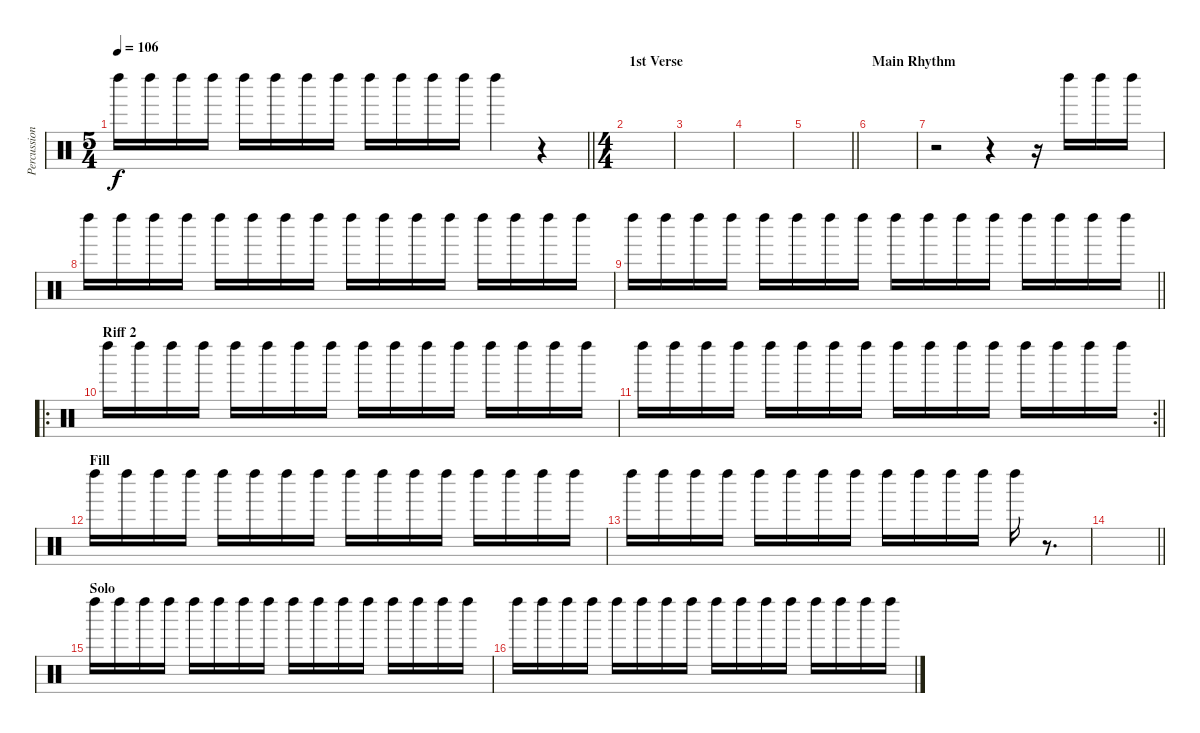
\track ("Percussion 1" "Percussion") {instrument percussion}
\staff
\articulation defaults
\ts (5 4)
\tempo 106
\clef neutral
\barLineRight lightlight
\ks c "Left Maraca (hit)".16{dy f} "Left Maraca (hit)".16 "Left Maraca (hit)".16 "Left Maraca (hit)".16 "Left Maraca (hit)".16 "Left Maraca (hit)".16 "Left Maraca (hit)".16 "Left Maraca (hit)".16 "Left Maraca (hit)".16 "Left Maraca (hit)".16 "Left Maraca (hit)".16 "Left Maraca (hit)".16 "Left Maraca (hit)".4
r.4 |
\ts (4 4)
\section ("" "1st Verse")
|
|
|
\barLineRight lightlight
|
\section ("" "Main Rhythm")
|
r.2 r.4 r.16 "Left Maraca (hit)".16 "Left Maraca (hit)".16 "Left Maraca (hit)".16 |
"Left Maraca (hit)".16 "Left Maraca (hit)".16 "Left Maraca (hit)".16 "Left Maraca (hit)".16 "Left Maraca (hit)".16 "Left Maraca (hit)".16 "Left Maraca (hit)".16 "Left Maraca (hit)".16 "Left Maraca (hit)".16 "Left Maraca (hit)".16 "Left Maraca (hit)".16 "Left Maraca (hit)".16 "Left Maraca (hit)".16 "Left Maraca (hit)".16 "Left Maraca (hit)".16 "Left Maraca (hit)".16 |
\barLineRight lightlight "Left Maraca (hit)".16 "Left Maraca (hit)".16 "Left Maraca (hit)".16 "Left Maraca (hit)".16 "Left Maraca (hit)".16 "Left Maraca (hit)".16 "Left Maraca (hit)".16 "Left Maraca (hit)".16 "Left Maraca (hit)".16 "Left Maraca (hit)".16 "Left Maraca (hit)".16 "Left Maraca (hit)".16 "Left Maraca (hit)".16 "Left Maraca (hit)".16 "Left Maraca (hit)".16 "Left Maraca (hit)".16
|
\ro
\section ("" "Riff 2")
"Left Maraca (hit)".16 "Left Maraca (hit)".16 "Left Maraca (hit)".16 "Left Maraca (hit)".16 "Left Maraca (hit)".16 "Left Maraca (hit)".16 "Left Maraca (hit)".16 "Left Maraca (hit)".16 "Left Maraca (hit)".16 "Left Maraca (hit)".16 "Left Maraca (hit)".16 "Left Maraca (hit)".16 "Left Maraca (hit)".16 "Left Maraca (hit)".16 "Left Maraca (hit)".16 "Left Maraca (hit)".16 |
\rc 2
\barLineRight lightlight "Left Maraca (hit)".16 "Left Maraca (hit)".16 "Left Maraca (hit)".16 "Left Maraca (hit)".16 "Left Maraca (hit)".16 "Left Maraca (hit)".16 "Left Maraca (hit)".16 "Left Maraca (hit)".16 "Left Maraca (hit)".16 "Left Maraca (hit)".16 "Left Maraca (hit)".16 "Left Maraca (hit)".16 "Left Maraca (hit)".16 "Left Maraca (hit)".16 "Left Maraca (hit)".16 "Left Maraca (hit)".16
|
\section ("" "Fill")
"Left Maraca (hit)".16 "Left Maraca (hit)".16 "Left Maraca (hit)".16 "Left Maraca (hit)".16 "Left Maraca (hit)".16 "Left Maraca (hit)".16 "Left Maraca (hit)".16 "Left Maraca (hit)".16 "Left Maraca (hit)".16 "Left Maraca (hit)".16 "Left Maraca (hit)".16 "Left Maraca (hit)".16 "Left Maraca (hit)".16 "Left Maraca (hit)".16 "Left Maraca (hit)".16 "Left Maraca (hit)".16 |
"Left Maraca (hit)".16 "Left Maraca (hit)".16 "Left Maraca (hit)".16 "Left Maraca (hit)".16 "Left Maraca (hit)".16 "Left Maraca (hit)".16 "Left Maraca (hit)".16 "Left Maraca (hit)".16 "Left Maraca (hit)".16 "Left Maraca (hit)".16 "Left Maraca (hit)".16 "Left Maraca (hit)".16 "Left Maraca (hit)".16 r.8{d} |
\barLineRight lightlight
|
\section ("" "Solo")
"Left Maraca (hit)".16 "Left Maraca (hit)".16 "Left Maraca (hit)".16 "Left Maraca (hit)".16 "Left Maraca (hit)".16 "Left Maraca (hit)".16 "Left Maraca (hit)".16 "Left Maraca (hit)".16 "Left Maraca (hit)".16 "Left Maraca (hit)".16 "Left Maraca (hit)".16 "Left Maraca (hit)".16 "Left Maraca (hit)".16 "Left Maraca (hit)".16 "Left Maraca (hit)".16 "Left Maraca (hit)".16 |
"Left Maraca (hit)".16 "Left Maraca (hit)".16 "Left Maraca (hit)".16 "Left Maraca (hit)".16 "Left Maraca (hit)".16 "Left Maraca (hit)".16 "Left Maraca (hit)".16 "Left Maraca (hit)".16 "Left Maraca (hit)".16 "Left Maraca (hit)".16 "Left Maraca (hit)".16 "Left Maraca (hit)".16 "Left Maraca (hit)".16 "Left Maraca (hit)".16 "Left Maraca (hit)".16 "Left Maraca (hit)".16
